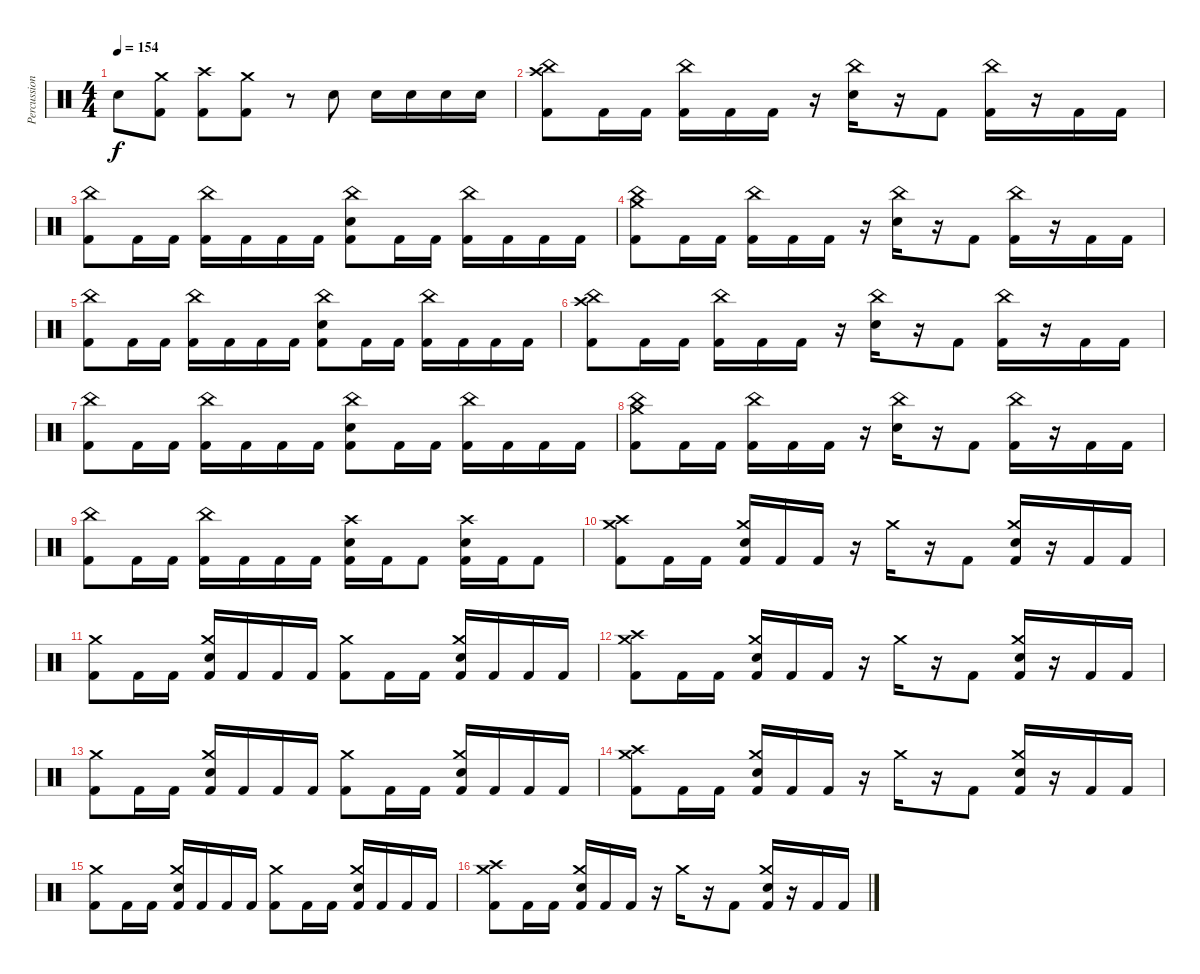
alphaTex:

\track ("Percussion" "Percussion") {instrument percussion bank 128}
\staff {score}
\articulation defaults
\ts (4 4)
\tempo 154
\clef neutral
\ks c "Snare (hit) 2".8{dy f}
("Crash medium (hit)" "Kick (hit) 2").8 ("Crash high (hit)" "Kick (hit) 2").8 ("Crash medium (hit)" "Kick (hit) 2").8 r.8 "Snare (hit) 2".8 "Snare (hit) 2".16 "Snare (hit) 2".16 "Snare (hit) 2".16 "Snare (hit) 2".16 |
("Crash high (hit)" "China (hit)" "Kick (hit) 2").8 "Kick (hit) 2".16 "Kick (hit) 2".16 ("China (hit)" "Kick (hit) 2").16 "Kick (hit) 2".16 "Kick (hit) 2".16 r.16 ("China (hit)" "Snare (hit) 2").16 r.16 "Kick (hit) 2".8 ("China (hit)" "Kick (hit) 2").16 r.16 "Kick (hit) 2".16 "Kick (hit) 2".16 |
("China (hit)" "Kick (hit) 2").8 "Kick (hit) 2".16 "Kick (hit) 2".16 ("China (hit)" "Kick (hit) 2").16 "Kick (hit) 2".16 "Kick (hit) 2".16 "Kick (hit) 2".16 ("China (hit)" "Snare (hit) 2" "Kick (hit) 2").8 "Kick (hit) 2".16 "Kick (hit) 2".16 ("China (hit)" "Kick (hit) 2").16 "Kick (hit) 2".16 "Kick (hit) 2".16 "Kick (hit) 2".16 |
("Crash medium (hit)" "China (hit)" "Kick (hit) 2").8 "Kick (hit) 2".16 "Kick (hit) 2".16 ("China (hit)" "Kick (hit) 2").16 "Kick (hit) 2".16 "Kick (hit) 2".16 r.16 ("China (hit)" "Snare (hit) 2").16 r.16 "Kick (hit) 2".8 ("China (hit)" "Kick (hit) 2").16 r.16 "Kick (hit) 2".16 "Kick (hit) 2".16 |
("China (hit)" "Kick (hit) 2").8 "Kick (hit) 2".16 "Kick (hit) 2".16 ("China (hit)" "Kick (hit) 2").16 "Kick (hit) 2".16 "Kick (hit) 2".16 "Kick (hit) 2".16 ("China (hit)" "Snare (hit) 2" "Kick (hit) 2").8 "Kick (hit) 2".16 "Kick (hit) 2".16 ("China (hit)" "Kick (hit) 2").16 "Kick (hit) 2".16 "Kick (hit) 2".16 "Kick (hit) 2".16 |
("Crash high (hit)" "China (hit)" "Kick (hit) 2").8 "Kick (hit) 2".16 "Kick (hit) 2".16 ("China (hit)" "Kick (hit) 2").16 "Kick (hit) 2".16 "Kick (hit) 2".16 r.16 ("China (hit)" "Snare (hit) 2").16 r.16 "Kick (hit) 2".8 ("China (hit)" "Kick (hit) 2").16 r.16 "Kick (hit) 2".16 "Kick (hit) 2".16 |
("China (hit)" "Kick (hit) 2").8 "Kick (hit) 2".16 "Kick (hit) 2".16 ("China (hit)" "Kick (hit) 2").16 "Kick (hit) 2".16 "Kick (hit) 2".16 "Kick (hit) 2".16 ("China (hit)" "Snare (hit) 2" "Kick (hit) 2").8 "Kick (hit) 2".16 "Kick (hit) 2".16 ("China (hit)" "Kick (hit) 2").16 "Kick (hit) 2".16 "Kick (hit) 2".16 "Kick (hit) 2".16 |
("Crash medium (hit)" "China (hit)" "Kick (hit) 2").8 "Kick (hit) 2".16 "Kick (hit) 2".16 ("China (hit)" "Kick (hit) 2").16 "Kick (hit) 2".16 "Kick (hit) 2".16 r.16 ("China (hit)" "Snare (hit) 2").16 r.16 "Kick (hit) 2".8 ("China (hit)" "Kick (hit) 2").16 r.16 "Kick (hit) 2".16 "Kick (hit) 2".16 |
("China (hit)" "Kick (hit) 2").8 "Kick (hit) 2".16 "Kick (hit) 2".16 ("China (hit)" "Kick (hit) 2").16 "Kick (hit) 2".16 "Kick (hit) 2".16 "Kick (hit) 2".16 ("Crash high (hit)" "Snare (hit) 2" "Kick (hit) 2").16 "Kick (hit) 2".16 "Kick (hit) 2".8 ("Crash high (hit)" "Snare (hit) 2" "Kick (hit) 2").16 "Kick (hit) 2".16 "Kick (hit) 2".8 |
("Crash high (hit)" "Crash medium (hit)" "Kick (hit) 2").8 "Kick (hit) 2".16 "Kick (hit) 2".16 ("Crash medium (hit)" "Snare (hit) 2" "Kick (hit) 2").16 "Kick (hit) 2".16 "Kick (hit) 2".16 r.16 "Crash medium (hit)".16 r.16 "Kick (hit) 2".8 ("Crash medium (hit)" "Snare (hit) 2" "Kick (hit) 2").16 r.16 "Kick (hit) 2".16 "Kick (hit) 2".16 |
("Crash medium (hit)" "Kick (hit) 2").8 "Kick (hit) 2".16 "Kick (hit) 2".16 ("Crash medium (hit)" "Snare (hit) 2" "Kick (hit) 2").16 "Kick (hit) 2".16 "Kick (hit) 2".16 "Kick (hit) 2".16 ("Crash medium (hit)" "Kick (hit) 2").8 "Kick (hit) 2".16 "Kick (hit) 2".16 ("Crash medium (hit)" "Snare (hit) 2" "Kick (hit) 2").16 "Kick (hit) 2".16 "Kick (hit) 2".16 "Kick (hit) 2".16 |
("Crash high (hit)" "Crash medium (hit)" "Kick (hit) 2").8 "Kick (hit) 2".16 "Kick (hit) 2".16 ("Crash medium (hit)" "Snare (hit) 2" "Kick (hit) 2").16 "Kick (hit) 2".16 "Kick (hit) 2".16 r.16 "Crash medium (hit)".16 r.16 "Kick (hit) 2".8 ("Crash medium (hit)" "Snare (hit) 2" "Kick (hit) 2").16 r.16 "Kick (hit) 2".16 "Kick (hit) 2".16 |
("Crash medium (hit)" "Kick (hit) 2").8 "Kick (hit) 2".16 "Kick (hit) 2".16 ("Crash medium (hit)" "Snare (hit) 2" "Kick (hit) 2").16 "Kick (hit) 2".16 "Kick (hit) 2".16 "Kick (hit) 2".16 ("Crash medium (hit)" "Kick (hit) 2").8 "Kick (hit) 2".16 "Kick (hit) 2".16 ("Crash medium (hit)" "Snare (hit) 2" "Kick (hit) 2").16 "Kick (hit) 2".16 "Kick (hit) 2".16 "Kick (hit) 2".16 |
("Crash high (hit)" "Crash medium (hit)" "Kick (hit) 2").8 "Kick (hit) 2".16 "Kick (hit) 2".16 ("Crash medium (hit)" "Snare (hit) 2" "Kick (hit) 2").16 "Kick (hit) 2".16 "Kick (hit) 2".16 r.16 "Crash medium (hit)".16 r.16 "Kick (hit) 2".8 ("Crash medium (hit)" "Snare (hit) 2" "Kick (hit) 2").16 r.16 "Kick (hit) 2".16 "Kick (hit) 2".16 |
("Crash medium (hit)" "Kick (hit) 2").8 "Kick (hit) 2".16 "Kick (hit) 2".16 ("Crash medium (hit)" "Snare (hit) 2" "Kick (hit) 2").16 "Kick (hit) 2".16 "Kick (hit) 2".16 "Kick (hit) 2".16 ("Crash medium (hit)" "Kick (hit) 2").8 "Kick (hit) 2".16 "Kick (hit) 2".16 ("Crash medium (hit)" "Snare (hit) 2" "Kick (hit) 2").16 "Kick (hit) 2".16 "Kick (hit) 2".16 "Kick (hit) 2".16 |
("Crash high (hit)" "Crash medium (hit)" "Kick (hit) 2").8 "Kick (hit) 2".16 "Kick (hit) 2".16 ("Crash medium (hit)" "Snare (hit) 2" "Kick (hit) 2").16 "Kick (hit) 2".16 "Kick (hit) 2".16 r.16 "Crash medium (hit)".16 r.16 "Kick (hit) 2".8 ("Crash medium (hit)" "Snare (hit) 2" "Kick (hit) 2").16 r.16 "Kick (hit) 2".16 "Kick (hit) 2".16
